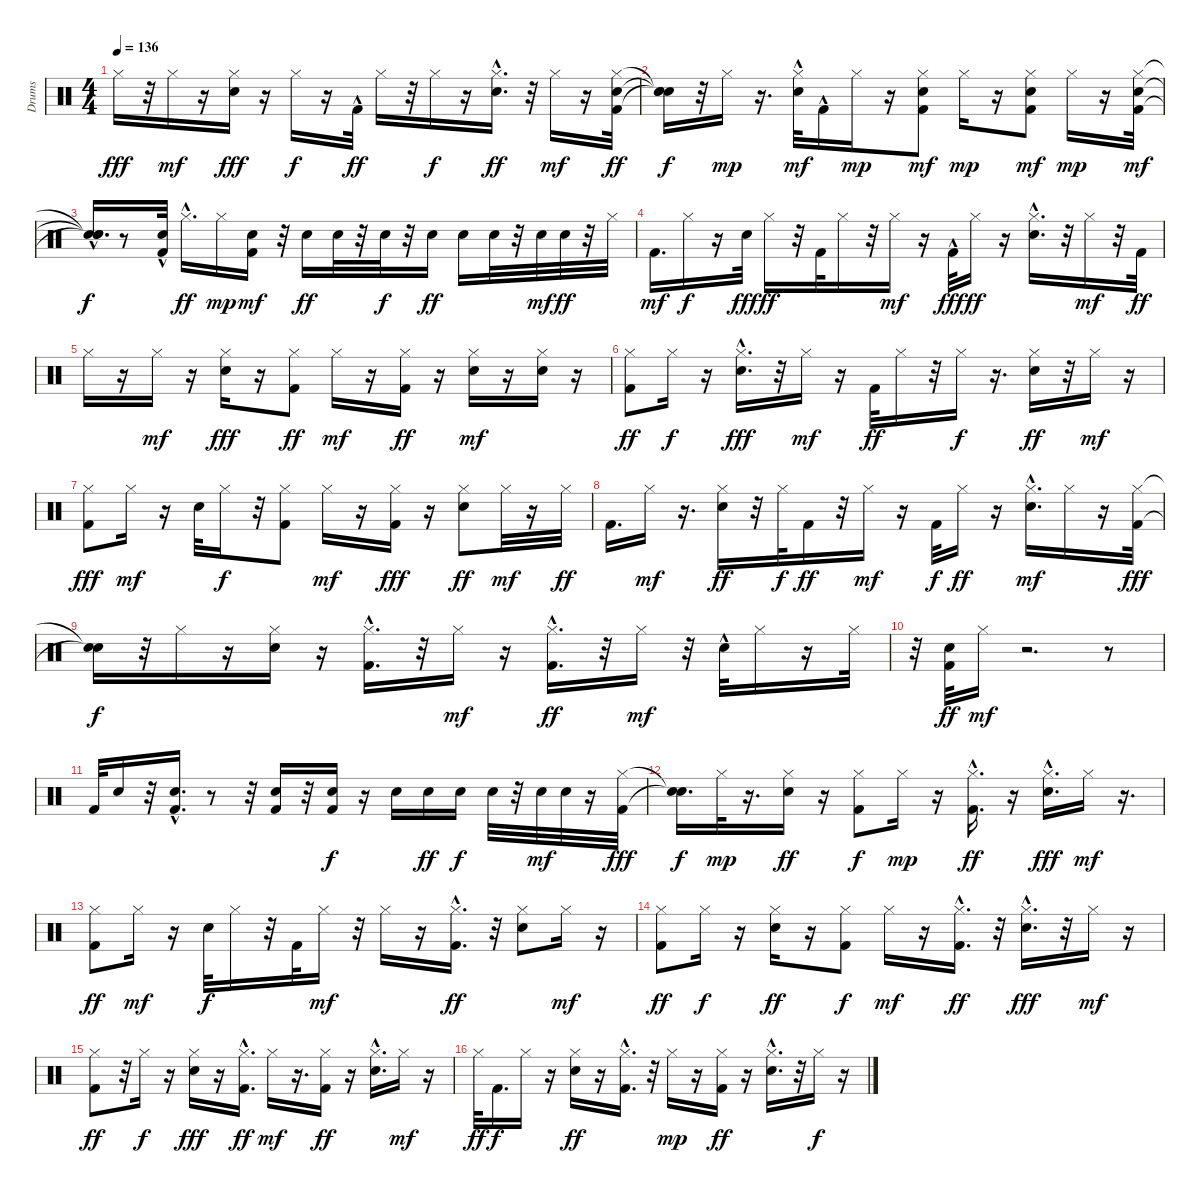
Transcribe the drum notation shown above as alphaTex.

\track ("Drums" "Drums") {instrument percussion}
\staff {score}
\articulation defaults
\ts (4 4)
\tempo 136
\clef neutral
\ks c "Hi-Hat (closed)".16{dy fff}
r.32 "Hi-Hat (closed)".16{dy mf} r.16 ("Snare (hit) 2" "Hi-Hat (closed)").16{dy fff} r.16 "Hi-Hat (closed)".16{dy f} r.16 "Kick (hit) 2"{hac}.32{dy ff} "Hi-Hat (closed)".16 r.32 "Hi-Hat (closed)".16{dy f} r.16 ("Snare (hit) 2"{hac} "Hi-Hat (closed)").16{d dy ff} r.32 "Hi-Hat (closed)".16{dy mf} r.16 ("Kick (hit) 2" "Hi-Hat (closed)" "Snare (hit) 2").32{dy ff} |
("Snare (hit)"{t} "Snare (hit)"{t} "Snare (hit)"{t}).16{dy f} r.32 "Hi-Hat (closed)".16{dy mp} r.16{d} ("Hi-Hat (closed)" "Snare (hit) 2"{hac}).32{dy mf} "Kick (hit) 2"{hac}.16 "Hi-Hat (closed)".16{dy mp} r.16 ("Hi-Hat (closed)" "Kick (hit) 2" "Snare (hit) 2").8{dy mf} "Hi-Hat (closed)".16{dy mp} r.16 ("Hi-Hat (closed)" "Kick (hit) 2" "Snare (hit) 2").8{dy mf} "Hi-Hat (closed)".16{dy mp} r.16 ("Hi-Hat (closed)" "Kick (hit) 2" "Snare (hit) 2").32{dy mf} |
("Snare (hit)"{t} "Snare (hit)"{hac t} "Snare (hit)"{hac t}).16{d dy f} r.8 ("Kick (hit) 2"{hac} "Snare (hit) 2"{hac}).32 "Hi-Hat (closed)"{hac}.16{d dy ff} "Hi-Hat (closed)".16{dy mp} ("Kick (hit) 2" "Snare (hit) 2").16{dy mf} r.32 "Snare (hit) 2".16{dy ff} "Snare (hit) 2".32 r.32 "Snare (hit) 2".32{dy f} r.32 "Snare (hit) 2".16{dy ff} "Snare (hit) 2".16 "Snare (hit) 2".32 r.32 "Snare (hit) 2".32{dy mf} "Snare (hit) 2".32{dy ff} r.32 "Hi-Hat (closed)".32 |
"Kick (hit) 2".16{d dy mf} "Hi-Hat (closed)".16{dy f} r.16 "Snare (hit) 2".32{dy fff} "Hi-Hat (closed)".16{dy ff} r.32 "Kick (hit) 2".32 "Hi-Hat (closed)".16 r.32 "Hi-Hat (closed)".16{dy mf} r.16 "Kick (hit) 2"{hac}.32{dy fff} "Hi-Hat (closed)".16{dy ff} r.16 ("Hi-Hat (closed)" "Snare (hit) 2"{hac}).16{d} r.32 "Hi-Hat (closed)".16{dy mf} r.32 "Kick (hit) 2".32{dy ff} |
"Hi-Hat (closed)".16 r.16 "Hi-Hat (closed)".16{dy mf} r.16 ("Snare (hit) 2" "Hi-Hat (closed)").16{dy fff} r.16 ("Hi-Hat (closed)" "Kick (hit) 2").8{dy ff} "Hi-Hat (closed)".16{dy mf} r.16 ("Kick (hit) 2" "Hi-Hat (closed)").16{dy ff} r.16 ("Hi-Hat (closed)" "Snare (hit) 2").16{dy mf} r.16 ("Hi-Hat (closed)" "Snare (hit) 2").16 r.16 |
("Hi-Hat (closed)" "Kick (hit) 2").8{dy ff} "Hi-Hat (closed)".16{dy f} r.16 ("Snare (hit) 2"{hac} "Hi-Hat (closed)").16{d dy fff} r.32 "Hi-Hat (closed)".16{dy mf} r.16 "Kick (hit) 2".32{dy ff} "Hi-Hat (closed)".16 r.32 "Hi-Hat (closed)".16{dy f} r.16{d} ("Hi-Hat (closed)" "Snare (hit) 2").16{dy ff} r.32 "Hi-Hat (closed)".16{dy mf} r.16 |
("Kick (hit) 2" "Hi-Hat (closed)").8{dy fff} "Hi-Hat (closed)".16{dy mf} r.16 "Snare (hit) 2".32 "Hi-Hat (closed)".16{dy f} r.32 ("Hi-Hat (closed)" "Kick (hit) 2").8 "Hi-Hat (closed)".16{dy mf} r.16 ("Kick (hit) 2" "Hi-Hat (closed)").16{dy fff} r.16 ("Snare (hit) 2" "Hi-Hat (closed)").8{dy ff} "Hi-Hat (closed)".32{dy mf} r.16 "Hi-Hat (closed)".32{dy ff} |
"Kick (hit) 2".16{d} "Hi-Hat (closed)".16{dy mf} r.16{d} ("Snare (hit) 2" "Hi-Hat (closed)").16{dy ff} r.32 "Hi-Hat (closed)".32{dy f} "Kick (hit) 2".16{dy ff} r.32 "Hi-Hat (closed)".16{dy mf} r.16 "Kick (hit) 2".32{dy f} "Hi-Hat (closed)".16{dy ff} r.16 ("Hi-Hat (closed)" "Snare (hit) 2"{hac}).16{d dy mf} "Hi-Hat (closed)".16 r.16 ("Kick (hit) 2" "Hi-Hat (closed)").32{dy fff} |
("Snare (hit)"{t} "Snare (hit)"{t}).16{dy f} r.32 "Hi-Hat (closed)".16 r.16 ("Snare (hit) 2" "Hi-Hat (closed)").16 r.16 ("Kick (hit) 2"{hac} "Hi-Hat (closed)").16{d} r.32 "Hi-Hat (closed)".16{dy mf} r.16 ("Kick (hit) 2"{hac} "Hi-Hat (closed)").16{d dy ff} r.32 "Hi-Hat (closed)".16{dy mf} r.32 "Snare (hit) 2"{hac}.32 "Hi-Hat (closed)".16 r.16 "Hi-Hat (closed)".32 |
r.32 ("Kick (hit) 2" "Snare (hit) 2").32{dy ff} "Hi-Hat (closed)".16{dy mf} r.2{d} r.8 |
"Kick (hit) 2".32 "Snare (hit) 2".16 r.32 ("Snare (hit) 2"{hac} "Kick (hit) 2"{hac}).16{d} r.8 r.32 ("Kick (hit) 2" "Snare (hit) 2").16 r.32 ("Snare (hit) 2" "Kick (hit) 2").16{dy f} r.16 "Snare (hit) 2".16 "Snare (hit) 2".16{dy ff} "Snare (hit) 2".16{dy f} "Snare (hit) 2".32 r.32 "Snare (hit) 2".32{dy mf} "Snare (hit) 2".32 r.16 ("Hi-Hat (closed)" "Kick (hit) 2").32{dy fff} |
("Snare (hit)"{t} "Snare (hit)"{t}).16{d dy f} "Hi-Hat (closed)".32{dy mp} r.16{d} ("Snare (hit) 2" "Hi-Hat (closed)").16{dy ff} r.16 ("Hi-Hat (closed)" "Kick (hit) 2").8{dy f} "Hi-Hat (closed)".16{dy mp} r.16 ("Kick (hit) 2"{hac} "Hi-Hat (closed)").16{d dy ff} r.16 ("Hi-Hat (closed)" "Snare (hit) 2"{hac}).16{d dy fff} "Hi-Hat (closed)".16{dy mf} r.16{d} |
("Kick (hit) 2" "Hi-Hat (closed)").8{dy ff} "Hi-Hat (closed)".16{dy mf} r.16 "Snare (hit) 2".32{dy f} "Hi-Hat (closed)".16 r.32 "Kick (hit) 2".32 "Hi-Hat (closed)".16{dy mf} r.32 "Hi-Hat (closed)".16 r.16 ("Kick (hit) 2"{hac} "Hi-Hat (closed)").16{d dy ff} r.32 ("Snare (hit) 2" "Hi-Hat (closed)").8 "Hi-Hat (closed)".16{dy mf} r.16 |
("Hi-Hat (closed)" "Kick (hit) 2").8{dy ff} "Hi-Hat (closed)".16{dy f} r.16 ("Snare (hit) 2" "Hi-Hat (closed)").16{dy ff} r.16 ("Kick (hit) 2" "Hi-Hat (closed)").8{dy f} "Hi-Hat (closed)".16{dy mf} r.16 ("Hi-Hat (closed)" "Kick (hit) 2"{hac}).16{d dy ff} r.32 ("Hi-Hat (closed)" "Snare (hit) 2"{hac}).16{d dy fff} r.32 "Hi-Hat (closed)".16{dy mf} r.16 |
("Hi-Hat (closed)" "Kick (hit) 2").8{dy ff} r.32 "Hi-Hat (closed)".16{dy f} r.16 ("Snare (hit) 2" "Hi-Hat (closed)").16{dy fff} r.16 ("Hi-Hat (closed)" "Kick (hit) 2"{hac}).16{d dy ff} "Hi-Hat (closed)".16{dy mf} r.16{d} ("Hi-Hat (closed)" "Kick (hit) 2").16{dy ff} r.16 ("Hi-Hat (closed)" "Snare (hit) 2"{hac}).16{d} "Hi-Hat (closed)".16{dy mf} r.16 |
"Hi-Hat (closed)".32{dy ff} "Kick (hit) 2".16{d dy f} "Hi-Hat (closed)".16 r.16 ("Snare (hit) 2" "Hi-Hat (closed)").16{dy ff} r.16 ("Hi-Hat (closed)" "Kick (hit) 2"{hac}).16{d} r.32 "Hi-Hat (closed)".16{dy mp} r.16 ("Kick (hit) 2" "Hi-Hat (closed)").16{dy ff} r.16 ("Snare (hit) 2"{hac} "Hi-Hat (closed)").16{d} r.32 "Hi-Hat (closed)".16{dy f} r.16
